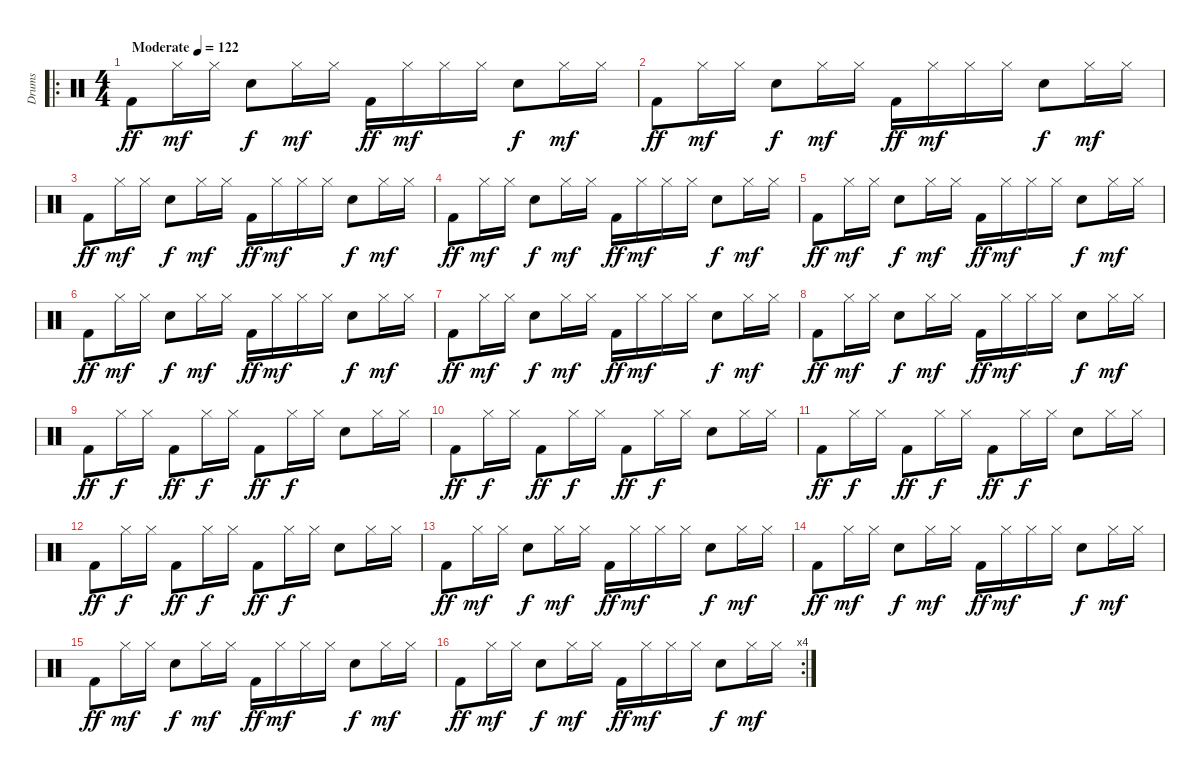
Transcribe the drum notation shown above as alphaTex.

\track ("Drums" "Drums") {instrument percussion}
\staff {score}
\articulation defaults
\ro
\ts (4 4)
\tempo (122 "Moderate")
\clef neutral
\ks c "Kick (hit) 2".8{dy ff} "Hi-Hat (closed)".16{dy mf} "Hi-Hat (closed)".16 "Snare (hit) 2".8{dy f} "Hi-Hat (closed)".16{dy mf} "Hi-Hat (closed)".16 "Kick (hit) 2".16{dy ff} "Hi-Hat (closed)".16{dy mf} "Hi-Hat (closed)".16 "Hi-Hat (closed)".16 "Snare (hit) 2".8{dy f} "Hi-Hat (closed)".16{dy mf} "Hi-Hat (closed)".16
|
"Kick (hit) 2".8{dy ff} "Hi-Hat (closed)".16{dy mf} "Hi-Hat (closed)".16 "Snare (hit) 2".8{dy f} "Hi-Hat (closed)".16{dy mf} "Hi-Hat (closed)".16 "Kick (hit) 2".16{dy ff} "Hi-Hat (closed)".16{dy mf} "Hi-Hat (closed)".16 "Hi-Hat (closed)".16 "Snare (hit) 2".8{dy f} "Hi-Hat (closed)".16{dy mf} "Hi-Hat (closed)".16 |
"Kick (hit) 2".8{dy ff} "Hi-Hat (closed)".16{dy mf} "Hi-Hat (closed)".16 "Snare (hit) 2".8{dy f} "Hi-Hat (closed)".16{dy mf} "Hi-Hat (closed)".16 "Kick (hit) 2".16{dy ff} "Hi-Hat (closed)".16{dy mf} "Hi-Hat (closed)".16 "Hi-Hat (closed)".16 "Snare (hit) 2".8{dy f} "Hi-Hat (closed)".16{dy mf} "Hi-Hat (closed)".16 |
"Kick (hit) 2".8{dy ff} "Hi-Hat (closed)".16{dy mf} "Hi-Hat (closed)".16 "Snare (hit) 2".8{dy f} "Hi-Hat (closed)".16{dy mf} "Hi-Hat (closed)".16 "Kick (hit) 2".16{dy ff} "Hi-Hat (closed)".16{dy mf} "Hi-Hat (closed)".16 "Hi-Hat (closed)".16 "Snare (hit) 2".8{dy f} "Hi-Hat (closed)".16{dy mf} "Hi-Hat (closed)".16 |
"Kick (hit) 2".8{dy ff} "Hi-Hat (closed)".16{dy mf} "Hi-Hat (closed)".16 "Snare (hit) 2".8{dy f} "Hi-Hat (closed)".16{dy mf} "Hi-Hat (closed)".16 "Kick (hit) 2".16{dy ff} "Hi-Hat (closed)".16{dy mf} "Hi-Hat (closed)".16 "Hi-Hat (closed)".16 "Snare (hit) 2".8{dy f} "Hi-Hat (closed)".16{dy mf} "Hi-Hat (closed)".16 |
"Kick (hit) 2".8{dy ff} "Hi-Hat (closed)".16{dy mf} "Hi-Hat (closed)".16 "Snare (hit) 2".8{dy f} "Hi-Hat (closed)".16{dy mf} "Hi-Hat (closed)".16 "Kick (hit) 2".16{dy ff} "Hi-Hat (closed)".16{dy mf} "Hi-Hat (closed)".16 "Hi-Hat (closed)".16 "Snare (hit) 2".8{dy f} "Hi-Hat (closed)".16{dy mf} "Hi-Hat (closed)".16 |
"Kick (hit) 2".8{dy ff} "Hi-Hat (closed)".16{dy mf} "Hi-Hat (closed)".16 "Snare (hit) 2".8{dy f} "Hi-Hat (closed)".16{dy mf} "Hi-Hat (closed)".16 "Kick (hit) 2".16{dy ff} "Hi-Hat (closed)".16{dy mf} "Hi-Hat (closed)".16 "Hi-Hat (closed)".16 "Snare (hit) 2".8{dy f} "Hi-Hat (closed)".16{dy mf} "Hi-Hat (closed)".16 |
"Kick (hit) 2".8{dy ff} "Hi-Hat (closed)".16{dy mf} "Hi-Hat (closed)".16 "Snare (hit) 2".8{dy f} "Hi-Hat (closed)".16{dy mf} "Hi-Hat (closed)".16 "Kick (hit) 2".16{dy ff} "Hi-Hat (closed)".16{dy mf} "Hi-Hat (closed)".16 "Hi-Hat (closed)".16 "Snare (hit) 2".8{dy f} "Hi-Hat (closed)".16{dy mf} "Hi-Hat (closed)".16 |
"Kick (hit) 2".8{dy ff} "Hi-Hat (closed)".16{dy f} "Hi-Hat (closed)".16 "Kick (hit) 2".8{dy ff} "Hi-Hat (closed)".16{dy f} "Hi-Hat (closed)".16 "Kick (hit) 2".8{dy ff} "Hi-Hat (closed)".16{dy f} "Hi-Hat (closed)".16 "Snare (hit) 2".8 "Hi-Hat (closed)".16 "Hi-Hat (closed)".16 |
"Kick (hit) 2".8{dy ff} "Hi-Hat (closed)".16{dy f} "Hi-Hat (closed)".16 "Kick (hit) 2".8{dy ff} "Hi-Hat (closed)".16{dy f} "Hi-Hat (closed)".16 "Kick (hit) 2".8{dy ff} "Hi-Hat (closed)".16{dy f} "Hi-Hat (closed)".16 "Snare (hit) 2".8 "Hi-Hat (closed)".16 "Hi-Hat (closed)".16 |
"Kick (hit) 2".8{dy ff} "Hi-Hat (closed)".16{dy f} "Hi-Hat (closed)".16 "Kick (hit) 2".8{dy ff} "Hi-Hat (closed)".16{dy f} "Hi-Hat (closed)".16 "Kick (hit) 2".8{dy ff} "Hi-Hat (closed)".16{dy f} "Hi-Hat (closed)".16 "Snare (hit) 2".8 "Hi-Hat (closed)".16 "Hi-Hat (closed)".16 |
"Kick (hit) 2".8{dy ff} "Hi-Hat (closed)".16{dy f} "Hi-Hat (closed)".16 "Kick (hit) 2".8{dy ff} "Hi-Hat (closed)".16{dy f} "Hi-Hat (closed)".16 "Kick (hit) 2".8{dy ff} "Hi-Hat (closed)".16{dy f} "Hi-Hat (closed)".16 "Snare (hit) 2".8 "Hi-Hat (closed)".16 "Hi-Hat (closed)".16 |
"Kick (hit) 2".8{dy ff} "Hi-Hat (closed)".16{dy mf} "Hi-Hat (closed)".16 "Snare (hit) 2".8{dy f} "Hi-Hat (closed)".16{dy mf} "Hi-Hat (closed)".16 "Kick (hit) 2".16{dy ff} "Hi-Hat (closed)".16{dy mf} "Hi-Hat (closed)".16 "Hi-Hat (closed)".16 "Snare (hit) 2".8{dy f} "Hi-Hat (closed)".16{dy mf} "Hi-Hat (closed)".16 |
"Kick (hit) 2".8{dy ff} "Hi-Hat (closed)".16{dy mf} "Hi-Hat (closed)".16 "Snare (hit) 2".8{dy f} "Hi-Hat (closed)".16{dy mf} "Hi-Hat (closed)".16 "Kick (hit) 2".16{dy ff} "Hi-Hat (closed)".16{dy mf} "Hi-Hat (closed)".16 "Hi-Hat (closed)".16 "Snare (hit) 2".8{dy f} "Hi-Hat (closed)".16{dy mf} "Hi-Hat (closed)".16 |
"Kick (hit) 2".8{dy ff} "Hi-Hat (closed)".16{dy mf} "Hi-Hat (closed)".16 "Snare (hit) 2".8{dy f} "Hi-Hat (closed)".16{dy mf} "Hi-Hat (closed)".16 "Kick (hit) 2".16{dy ff} "Hi-Hat (closed)".16{dy mf} "Hi-Hat (closed)".16 "Hi-Hat (closed)".16 "Snare (hit) 2".8{dy f} "Hi-Hat (closed)".16{dy mf} "Hi-Hat (closed)".16 |
\rc 4 "Kick (hit) 2".8{dy ff} "Hi-Hat (closed)".16{dy mf} "Hi-Hat (closed)".16 "Snare (hit) 2".8{dy f} "Hi-Hat (closed)".16{dy mf} "Hi-Hat (closed)".16 "Kick (hit) 2".16{dy ff} "Hi-Hat (closed)".16{dy mf} "Hi-Hat (closed)".16 "Hi-Hat (closed)".16 "Snare (hit) 2".8{dy f} "Hi-Hat (closed)".16{dy mf} "Hi-Hat (closed)".16
